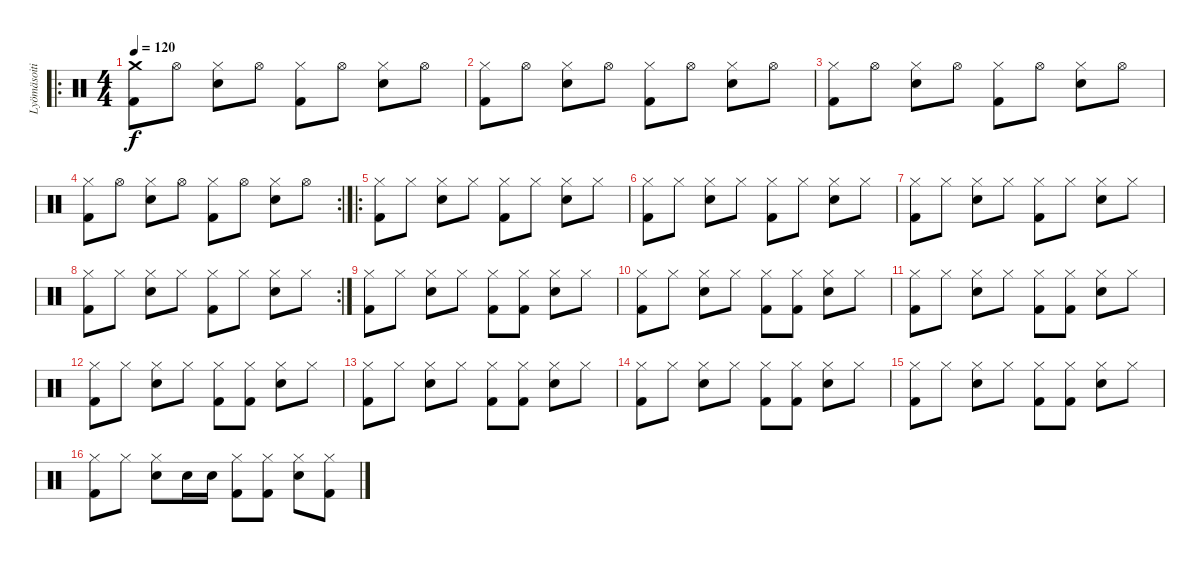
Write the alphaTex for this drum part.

\track ("Lyömäsoitin" "Lyömäsoiti") {instrument percussion}
\staff {score}
\articulation defaults
\ro
\ts (4 4)
\tempo 120
\clef neutral
\ks c
("Kick (hit) 2" "Crash medium (hit)").8{dy f} "Hi-Hat (open)".8 ("Electric Snare (hit)" "Hi-Hat (closed)").8 "Hi-Hat (open)".8 ("Kick (hit) 2" "Hi-Hat (closed)").8 "Hi-Hat (open)".8 ("Electric Snare (hit)" "Hi-Hat (closed)").8 "Hi-Hat (open)".8 |
("Kick (hit) 2" "Hi-Hat (closed)").8 "Hi-Hat (open)".8 ("Electric Snare (hit)" "Hi-Hat (closed)").8 "Hi-Hat (open)".8 ("Kick (hit) 2" "Hi-Hat (closed)").8 "Hi-Hat (open)".8 ("Electric Snare (hit)" "Hi-Hat (closed)").8 "Hi-Hat (open)".8 |
("Kick (hit) 2" "Hi-Hat (closed)").8 "Hi-Hat (open)".8 ("Electric Snare (hit)" "Hi-Hat (closed)").8 "Hi-Hat (open)".8 ("Kick (hit) 2" "Hi-Hat (closed)").8 "Hi-Hat (open)".8 ("Electric Snare (hit)" "Hi-Hat (closed)").8 "Hi-Hat (open)".8 |
\rc 2
("Kick (hit) 2" "Hi-Hat (closed)").8 "Hi-Hat (open)".8 ("Electric Snare (hit)" "Hi-Hat (closed)").8 "Hi-Hat (open)".8 ("Kick (hit) 2" "Hi-Hat (closed)").8 "Hi-Hat (open)".8 ("Electric Snare (hit)" "Hi-Hat (closed)").8 "Hi-Hat (open)".8 |
\ro
("Kick (hit) 2" "Hi-Hat (closed)").8 "Hi-Hat (closed)".8 ("Electric Snare (hit)" "Hi-Hat (closed)").8 "Hi-Hat (closed)".8 ("Kick (hit) 2" "Hi-Hat (closed)").8 "Hi-Hat (closed)".8 ("Electric Snare (hit)" "Hi-Hat (closed)").8 "Hi-Hat (closed)".8 |
("Kick (hit) 2" "Hi-Hat (closed)").8 "Hi-Hat (closed)".8 ("Electric Snare (hit)" "Hi-Hat (closed)").8 "Hi-Hat (closed)".8 ("Kick (hit) 2" "Hi-Hat (closed)").8 "Hi-Hat (closed)".8 ("Electric Snare (hit)" "Hi-Hat (closed)").8 "Hi-Hat (closed)".8 |
("Kick (hit) 2" "Hi-Hat (closed)").8 "Hi-Hat (closed)".8 ("Electric Snare (hit)" "Hi-Hat (closed)").8 "Hi-Hat (closed)".8 ("Kick (hit) 2" "Hi-Hat (closed)").8 "Hi-Hat (closed)".8 ("Electric Snare (hit)" "Hi-Hat (closed)").8 "Hi-Hat (closed)".8 |
\rc 2
("Kick (hit) 2" "Hi-Hat (closed)").8 "Hi-Hat (closed)".8 ("Electric Snare (hit)" "Hi-Hat (closed)").8 "Hi-Hat (closed)".8 ("Kick (hit) 2" "Hi-Hat (closed)").8 "Hi-Hat (closed)".8 ("Electric Snare (hit)" "Hi-Hat (closed)").8 "Hi-Hat (closed)".8 |
("Kick (hit) 2" "Hi-Hat (closed)").8 "Hi-Hat (closed)".8 ("Electric Snare (hit)" "Hi-Hat (closed)").8 "Hi-Hat (closed)".8 ("Kick (hit) 2" "Hi-Hat (closed)").8 ("Kick (hit) 2" "Hi-Hat (closed)").8 ("Electric Snare (hit)" "Hi-Hat (closed)").8 "Hi-Hat (closed)".8 |
("Kick (hit) 2" "Hi-Hat (closed)").8 "Hi-Hat (closed)".8 ("Electric Snare (hit)" "Hi-Hat (closed)").8 "Hi-Hat (closed)".8 ("Kick (hit) 2" "Hi-Hat (closed)").8 ("Kick (hit) 2" "Hi-Hat (closed)").8 ("Electric Snare (hit)" "Hi-Hat (closed)").8 "Hi-Hat (closed)".8 |
("Kick (hit) 2" "Hi-Hat (closed)").8 "Hi-Hat (closed)".8 ("Electric Snare (hit)" "Hi-Hat (closed)").8 "Hi-Hat (closed)".8 ("Kick (hit) 2" "Hi-Hat (closed)").8 ("Kick (hit) 2" "Hi-Hat (closed)").8 ("Electric Snare (hit)" "Hi-Hat (closed)").8 "Hi-Hat (closed)".8 |
("Kick (hit) 2" "Hi-Hat (closed)").8 "Hi-Hat (closed)".8 ("Electric Snare (hit)" "Hi-Hat (closed)").8 "Hi-Hat (closed)".8 ("Kick (hit) 2" "Hi-Hat (closed)").8 ("Kick (hit) 2" "Hi-Hat (closed)").8 ("Electric Snare (hit)" "Hi-Hat (closed)").8 "Hi-Hat (closed)".8 |
("Kick (hit) 2" "Hi-Hat (closed)").8 "Hi-Hat (closed)".8 ("Electric Snare (hit)" "Hi-Hat (closed)").8 "Hi-Hat (closed)".8 ("Kick (hit) 2" "Hi-Hat (closed)").8 ("Kick (hit) 2" "Hi-Hat (closed)").8 ("Electric Snare (hit)" "Hi-Hat (closed)").8 "Hi-Hat (closed)".8 |
("Kick (hit) 2" "Hi-Hat (closed)").8 "Hi-Hat (closed)".8 ("Electric Snare (hit)" "Hi-Hat (closed)").8 "Hi-Hat (closed)".8 ("Kick (hit) 2" "Hi-Hat (closed)").8 ("Kick (hit) 2" "Hi-Hat (closed)").8 ("Electric Snare (hit)" "Hi-Hat (closed)").8 "Hi-Hat (closed)".8 |
("Kick (hit) 2" "Hi-Hat (closed)").8 "Hi-Hat (closed)".8 ("Electric Snare (hit)" "Hi-Hat (closed)").8 "Hi-Hat (closed)".8 ("Kick (hit) 2" "Hi-Hat (closed)").8 ("Kick (hit) 2" "Hi-Hat (closed)").8 ("Electric Snare (hit)" "Hi-Hat (closed)").8 "Hi-Hat (closed)".8 |
("Kick (hit) 2" "Hi-Hat (closed)").8 "Hi-Hat (closed)".8 ("Electric Snare (hit)" "Hi-Hat (closed)").8 "Electric Snare (hit)".16 "Electric Snare (hit)".16 ("Kick (hit) 2" "Hi-Hat (closed)").8 ("Kick (hit) 2" "Hi-Hat (closed)").8 ("Electric Snare (hit)" "Hi-Hat (closed)").8 ("Kick (hit) 2" "Hi-Hat (closed)").8
